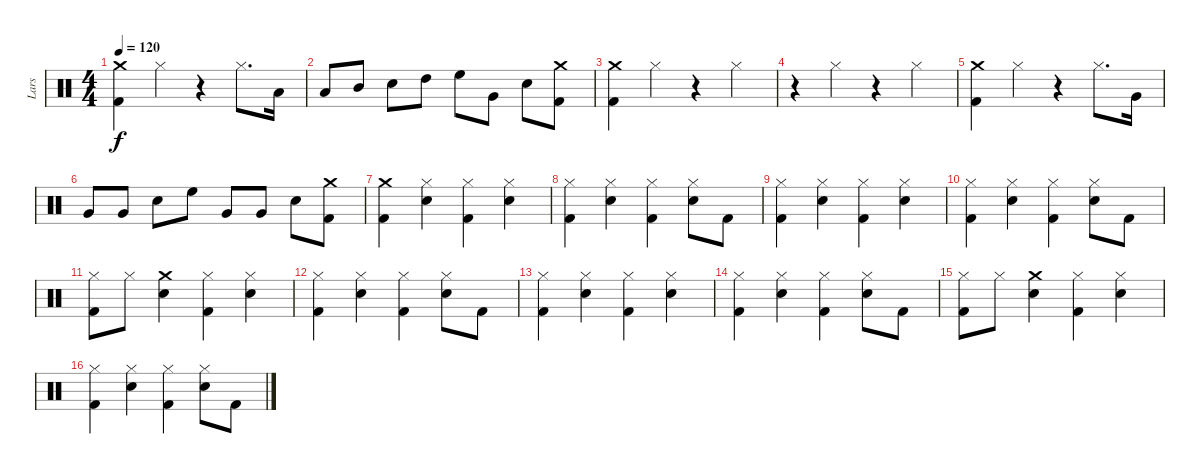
\track ("Lars" "Lars") {instrument percussion}
\staff {score}
\articulation defaults
\ts (4 4)
\tempo 120
\clef neutral
\ks c
("Kick (hit) 2" "Crash medium (hit)").4{dy f} "Hi-Hat (closed)".4 r.4 "Hi-Hat (closed)".8{d} "Low Tom (hit)".16 |
"Low Tom (hit)".8 "Mid Tom (hit)".8 "Snare (hit) 2".8 "High Tom (hit)".8 "High Floor Tom (hit)".8 "Very Low Tom (hit)".8 "Snare (hit) 2".8 ("Crash medium (hit)" "Kick (hit) 2").8 |
("Kick (hit) 2" "Crash medium (hit)").4 "Hi-Hat (closed)".4 r.4 "Hi-Hat (closed)".4 |
r.4 "Hi-Hat (closed)".4 r.4 "Hi-Hat (closed)".4 |
("Crash medium (hit)" "Kick (hit) 2").4 "Hi-Hat (closed)".4 r.4 "Hi-Hat (closed)".8{d} "Very Low Tom (hit)".16 |
"Very Low Tom (hit)".8 "Very Low Tom (hit)".8 "Snare (hit) 2".8 "High Floor Tom (hit)".8 "Very Low Tom (hit)".8 "Very Low Tom (hit)".8 "Snare (hit) 2".8 ("Crash medium (hit)" "Kick (hit) 2").8 |
("Kick (hit) 2" "Crash medium (hit)").4 ("Hi-Hat (closed)" "Snare (hit) 2").4 ("Kick (hit) 2" "Hi-Hat (closed)").4 ("Hi-Hat (closed)" "Snare (hit) 2").4 |
("Hi-Hat (closed)" "Kick (hit) 2").4 ("Hi-Hat (closed)" "Snare (hit) 2").4 ("Hi-Hat (closed)" "Kick (hit) 2").4 ("Snare (hit) 2" "Hi-Hat (closed)").8 "Kick (hit) 2".8 |
("Kick (hit) 2" "Hi-Hat (closed)").4 ("Hi-Hat (closed)" "Snare (hit) 2").4 ("Kick (hit) 2" "Hi-Hat (closed)").4 ("Snare (hit) 2" "Hi-Hat (closed)").4 |
("Kick (hit) 2" "Hi-Hat (closed)").4 ("Hi-Hat (closed)" "Snare (hit) 2").4 ("Kick (hit) 2" "Hi-Hat (closed)").4 ("Hi-Hat (closed)" "Snare (hit) 2").8 "Kick (hit) 2".8 |
("Kick (hit) 2" "Hi-Hat (closed)").8 "Hi-Hat (closed)".8 ("Crash medium (hit)" "Snare (hit) 2").4 ("Hi-Hat (closed)" "Kick (hit) 2").4 ("Snare (hit) 2" "Hi-Hat (closed)").4 |
("Hi-Hat (closed)" "Kick (hit) 2").4 ("Snare (hit) 2" "Hi-Hat (closed)").4 ("Hi-Hat (closed)" "Kick (hit) 2").4 ("Snare (hit) 2" "Hi-Hat (closed)").8 "Kick (hit) 2".8 |
("Hi-Hat (closed)" "Kick (hit) 2").4 ("Snare (hit) 2" "Hi-Hat (closed)").4 ("Hi-Hat (closed)" "Kick (hit) 2").4 ("Snare (hit) 2" "Hi-Hat (closed)").4 |
("Hi-Hat (closed)" "Kick (hit) 2").4 ("Hi-Hat (closed)" "Snare (hit) 2").4 ("Hi-Hat (closed)" "Kick (hit) 2").4 ("Snare (hit) 2" "Hi-Hat (closed)").8 "Kick (hit) 2".8 |
("Kick (hit) 2" "Hi-Hat (closed)").8 "Hi-Hat (closed)".8 ("Crash medium (hit)" "Snare (hit) 2").4 ("Hi-Hat (closed)" "Kick (hit) 2").4 ("Hi-Hat (closed)" "Snare (hit) 2").4 |
("Hi-Hat (closed)" "Kick (hit) 2").4 ("Snare (hit) 2" "Hi-Hat (closed)").4 ("Hi-Hat (closed)" "Kick (hit) 2").4 ("Hi-Hat (closed)" "Snare (hit) 2").8 "Kick (hit) 2".8
